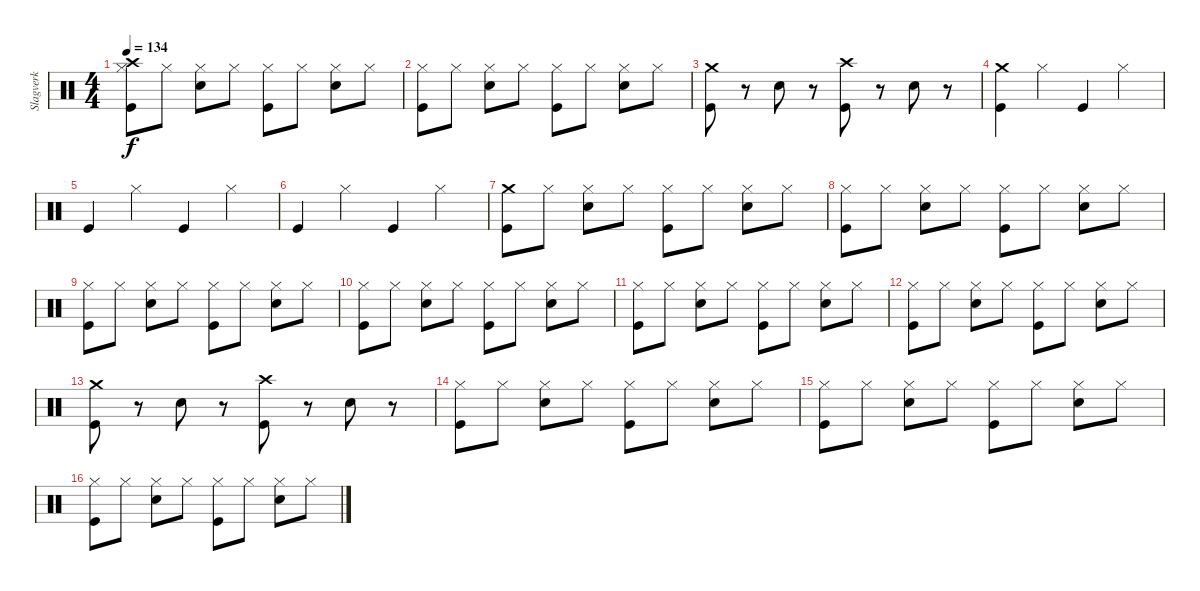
\track ("Slagverk" "Slagverk") {instrument percussion}
\staff
\articulation defaults
\ts (4 4)
\tempo 134
\clef neutral
\ks c
("Hi-Hat (closed)" "Crash high (hit)" "Kick (hit)").8{dy f} "Hi-Hat (closed)".8 ("Hi-Hat (closed)" "Electric Snare (hit)").8 "Hi-Hat (closed)".8 ("Hi-Hat (closed)" "Kick (hit)").8 "Hi-Hat (closed)".8 ("Hi-Hat (closed)" "Electric Snare (hit)").8 "Hi-Hat (closed)".8 |
("Hi-Hat (closed)" "Kick (hit)").8 "Hi-Hat (closed)".8 ("Hi-Hat (closed)" "Electric Snare (hit)").8 "Hi-Hat (closed)".8 ("Hi-Hat (closed)" "Kick (hit)").8 "Hi-Hat (closed)".8 ("Hi-Hat (closed)" "Electric Snare (hit)").8 "Hi-Hat (closed)".8 |
("Crash medium (hit)" "Kick (hit)").8 r.8 "Electric Snare (hit)".8 r.8 ("Crash high (hit)" "Kick (hit)").8 r.8 "Electric Snare (hit)".8 r.8 |
("Crash medium (hit)" "Kick (hit)").4 "Hi-Hat (closed)".4 "Kick (hit)".4 "Hi-Hat (closed)".4 |
"Kick (hit)".4 "Hi-Hat (closed)".4 "Kick (hit)".4 "Hi-Hat (closed)".4 |
"Kick (hit)".4 "Hi-Hat (closed)".4 "Kick (hit)".4 "Hi-Hat (closed)".4 |
("Crash medium (hit)" "Kick (hit)").8 "Hi-Hat (closed)".8 ("Hi-Hat (closed)" "Electric Snare (hit)").8 "Hi-Hat (closed)".8 ("Hi-Hat (closed)" "Kick (hit)").8 "Hi-Hat (closed)".8 ("Hi-Hat (closed)" "Electric Snare (hit)").8 "Hi-Hat (closed)".8 |
("Hi-Hat (closed)" "Kick (hit)").8 "Hi-Hat (closed)".8 ("Hi-Hat (closed)" "Electric Snare (hit)").8 "Hi-Hat (closed)".8 ("Hi-Hat (closed)" "Kick (hit)").8 "Hi-Hat (closed)".8 ("Hi-Hat (closed)" "Electric Snare (hit)").8 "Hi-Hat (closed)".8 |
("Hi-Hat (closed)" "Kick (hit)").8 "Hi-Hat (closed)".8 ("Hi-Hat (closed)" "Electric Snare (hit)").8 "Hi-Hat (closed)".8 ("Hi-Hat (closed)" "Kick (hit)").8 "Hi-Hat (closed)".8 ("Hi-Hat (closed)" "Electric Snare (hit)").8 "Hi-Hat (closed)".8 |
("Hi-Hat (closed)" "Kick (hit)").8 "Hi-Hat (closed)".8 ("Hi-Hat (closed)" "Electric Snare (hit)").8 "Hi-Hat (closed)".8 ("Hi-Hat (closed)" "Kick (hit)").8 "Hi-Hat (closed)".8 ("Hi-Hat (closed)" "Electric Snare (hit)").8 "Hi-Hat (closed)".8 |
("Hi-Hat (closed)" "Kick (hit)").8 "Hi-Hat (closed)".8 ("Hi-Hat (closed)" "Electric Snare (hit)").8 "Hi-Hat (closed)".8 ("Hi-Hat (closed)" "Kick (hit)").8 "Hi-Hat (closed)".8 ("Hi-Hat (closed)" "Electric Snare (hit)").8 "Hi-Hat (closed)".8 |
("Hi-Hat (closed)" "Kick (hit)").8 "Hi-Hat (closed)".8 ("Hi-Hat (closed)" "Electric Snare (hit)").8 "Hi-Hat (closed)".8 ("Hi-Hat (closed)" "Kick (hit)").8 "Hi-Hat (closed)".8 ("Hi-Hat (closed)" "Electric Snare (hit)").8 "Hi-Hat (closed)".8 |
("Crash medium (hit)" "Kick (hit)").8 r.8 "Electric Snare (hit)".8 r.8 ("Crash high (hit)" "Kick (hit)").8 r.8 "Electric Snare (hit)".8 r.8 |
("Hi-Hat (closed)" "Kick (hit)").8 "Hi-Hat (closed)".8 ("Hi-Hat (closed)" "Electric Snare (hit)").8 "Hi-Hat (closed)".8 ("Hi-Hat (closed)" "Kick (hit)").8 "Hi-Hat (closed)".8 ("Hi-Hat (closed)" "Electric Snare (hit)").8 "Hi-Hat (closed)".8 |
("Hi-Hat (closed)" "Kick (hit)").8 "Hi-Hat (closed)".8 ("Hi-Hat (closed)" "Electric Snare (hit)").8 "Hi-Hat (closed)".8 ("Hi-Hat (closed)" "Kick (hit)").8 "Hi-Hat (closed)".8 ("Hi-Hat (closed)" "Electric Snare (hit)").8 "Hi-Hat (closed)".8 |
("Hi-Hat (closed)" "Kick (hit)").8 "Hi-Hat (closed)".8 ("Hi-Hat (closed)" "Electric Snare (hit)").8 "Hi-Hat (closed)".8 ("Hi-Hat (closed)" "Kick (hit)").8 "Hi-Hat (closed)".8 ("Hi-Hat (closed)" "Electric Snare (hit)").8 "Hi-Hat (closed)".8
